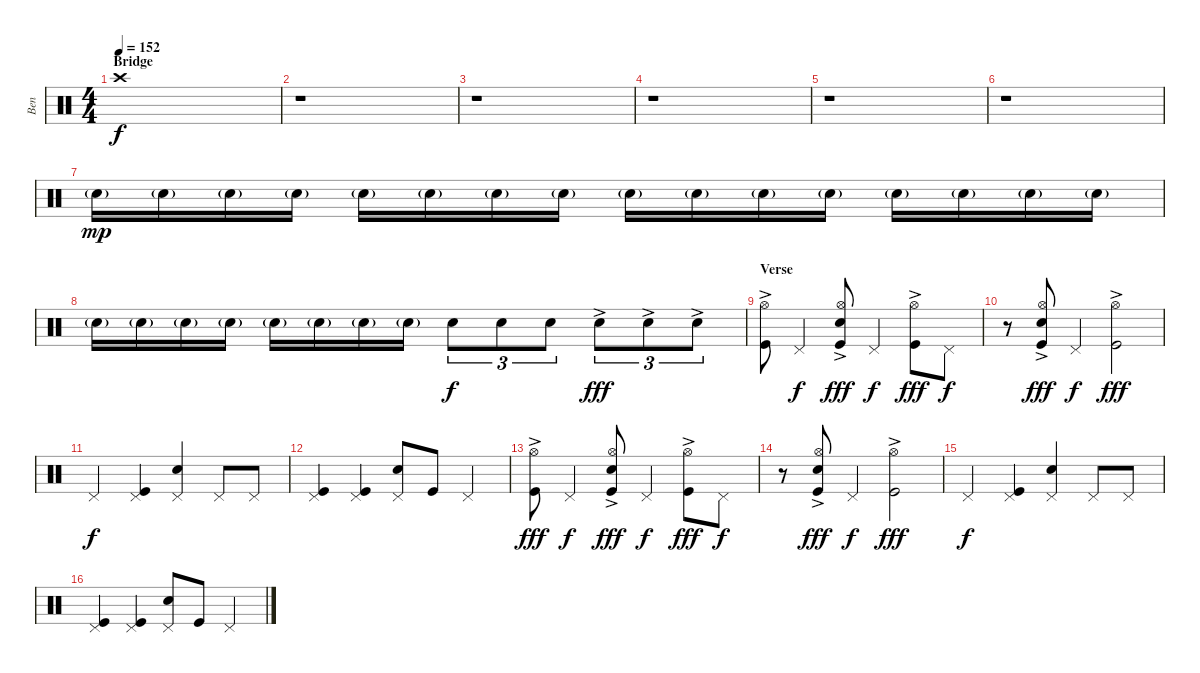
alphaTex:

\track ("Ben" "Ben") {instrument percussion}
\staff {score}
\articulation defaults
\ts (4 4)
\section ("" "Bridge")
\tempo 152
\clef neutral
\ks c "Crash high (hit)".1{dy f}
|
r.1 |
r.1 |
r.1 |
r.1 |
r.1 |
"Electric Snare (hit)"{g}.16{dy mp volume 8} "Electric Snare (hit)"{g}.16 "Electric Snare (hit)"{g}.16 "Electric Snare (hit)"{g}.16 "Electric Snare (hit)"{g}.16 "Electric Snare (hit)"{g}.16 "Electric Snare (hit)"{g}.16 "Electric Snare (hit)"{g}.16 "Electric Snare (hit)"{g}.16{volume 10} "Electric Snare (hit)"{g}.16 "Electric Snare (hit)"{g}.16 "Electric Snare (hit)"{g}.16 "Electric Snare (hit)"{g}.16 "Electric Snare (hit)"{g}.16 "Electric Snare (hit)"{g}.16 "Electric Snare (hit)"{g}.16 |
"Electric Snare (hit)"{g}.16{volume 12} "Electric Snare (hit)"{g}.16 "Electric Snare (hit)"{g}.16 "Electric Snare (hit)"{g}.16 "Electric Snare (hit)"{g}.16 "Electric Snare (hit)"{g}.16 "Electric Snare (hit)"{g}.16 "Electric Snare (hit)"{g}.16 "Electric Snare (hit)".8{tu (3 2) dy f} "Electric Snare (hit)".8{tu (3 2)} "Electric Snare (hit)".8{tu (3 2)} "Electric Snare (hit)"{ac}.8{tu (3 2) dy fff} "Electric Snare (hit)"{ac}.8{tu (3 2)} "Electric Snare (hit)"{ac}.8{tu (3 2)} |
\section ("" "Verse")
("Hi-Hat (open)" "Kick (hit)"{ac}).8 "Pedal Hi-Hat (hit)".4{dy f} ("Hi-Hat (open)" "Electric Snare (hit)" "Kick (hit)"{ac}).8{dy fff} "Pedal Hi-Hat (hit)".4{dy f} ("Hi-Hat (open)" "Kick (hit)"{ac}).8{dy fff} "Pedal Hi-Hat (hit)".8{dy f} |
r.8 ("Hi-Hat (open)" "Electric Snare (hit)" "Kick (hit)"{ac}).8{dy fff} "Pedal Hi-Hat (hit)".4{dy f} ("Hi-Hat (open)" "Kick (hit)"{ac}).2{dy fff} |
"Pedal Hi-Hat (hit)".4{dy f} ("Pedal Hi-Hat (hit)" "Kick (hit)").4 ("Pedal Hi-Hat (hit)" "Electric Snare (hit)").4 "Pedal Hi-Hat (hit)".8 "Pedal Hi-Hat (hit)".8 |
("Pedal Hi-Hat (hit)" "Kick (hit)").4 ("Pedal Hi-Hat (hit)" "Kick (hit)").4 ("Pedal Hi-Hat (hit)" "Electric Snare (hit)").8 "Kick (hit)".8 "Pedal Hi-Hat (hit)".4 |
("Hi-Hat (open)" "Kick (hit)"{ac}).8{dy fff} "Pedal Hi-Hat (hit)".4{dy f} ("Hi-Hat (open)" "Electric Snare (hit)" "Kick (hit)"{ac}).8{dy fff} "Pedal Hi-Hat (hit)".4{dy f} ("Hi-Hat (open)" "Kick (hit)"{ac}).8{dy fff} "Pedal Hi-Hat (hit)".8{dy f} |
r.8 ("Hi-Hat (open)" "Electric Snare (hit)" "Kick (hit)"{ac}).8{dy fff} "Pedal Hi-Hat (hit)".4{dy f} ("Hi-Hat (open)" "Kick (hit)"{ac}).2{dy fff} |
"Pedal Hi-Hat (hit)".4{dy f} ("Pedal Hi-Hat (hit)" "Kick (hit)").4 ("Pedal Hi-Hat (hit)" "Electric Snare (hit)").4 "Pedal Hi-Hat (hit)".8 "Pedal Hi-Hat (hit)".8 |
("Pedal Hi-Hat (hit)" "Kick (hit)").4 ("Pedal Hi-Hat (hit)" "Kick (hit)").4 ("Pedal Hi-Hat (hit)" "Electric Snare (hit)").8 "Kick (hit)".8 "Pedal Hi-Hat (hit)".4
